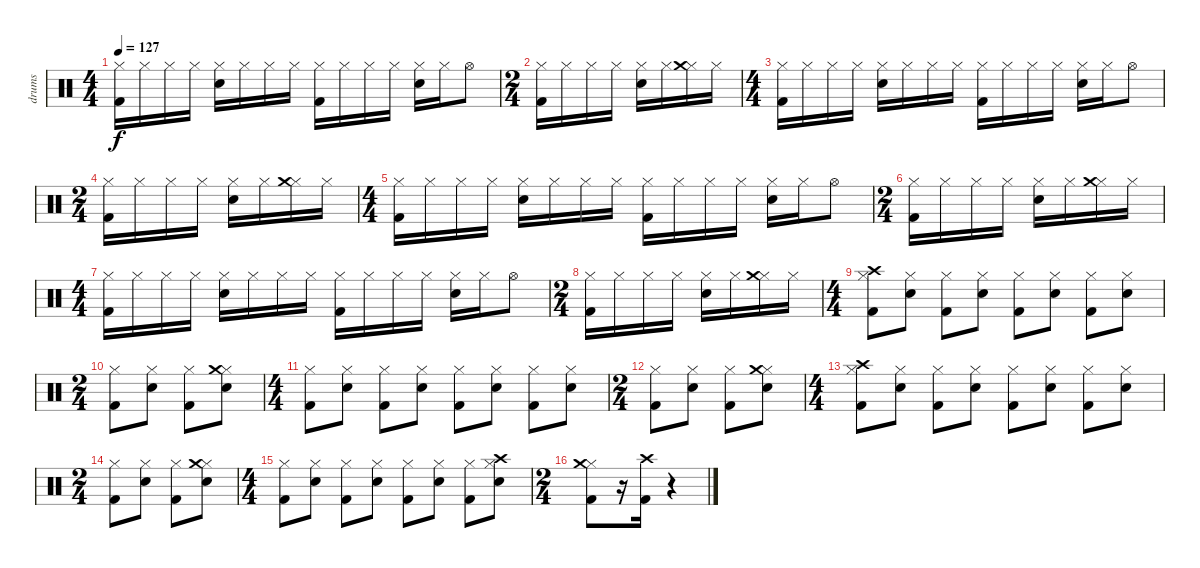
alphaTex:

\track ("drums" "drums") {instrument percussion}
\staff {score}
\articulation defaults
\ts (4 4)
\tempo 127
\clef neutral
\ks c
("Kick (hit) 2" "Hi-Hat (closed)").16{dy f} "Hi-Hat (closed)".16 "Hi-Hat (closed)".16 "Hi-Hat (closed)".16 ("Electric Snare (hit)" "Hi-Hat (closed)").16 "Hi-Hat (closed)".16 "Hi-Hat (closed)".16 "Hi-Hat (closed)".16 ("Kick (hit) 2" "Hi-Hat (closed)").16 "Hi-Hat (closed)".16 "Hi-Hat (closed)".16 "Hi-Hat (closed)".16 ("Electric Snare (hit)" "Hi-Hat (closed)").16 "Hi-Hat (closed)".16 "Hi-Hat (open)".8 |
\ts (2 4)
("Kick (hit) 2" "Hi-Hat (closed)").16 "Hi-Hat (closed)".16 "Hi-Hat (closed)".16 "Hi-Hat (closed)".16 ("Electric Snare (hit)" "Hi-Hat (closed)").16 "Hi-Hat (closed)".16 ("Hi-Hat (closed)" "Crash medium (hit)").16 "Hi-Hat (closed)".16 |
\ts (4 4)
("Kick (hit) 2" "Hi-Hat (closed)").16 "Hi-Hat (closed)".16 "Hi-Hat (closed)".16 "Hi-Hat (closed)".16 ("Electric Snare (hit)" "Hi-Hat (closed)").16 "Hi-Hat (closed)".16 "Hi-Hat (closed)".16 "Hi-Hat (closed)".16 ("Kick (hit) 2" "Hi-Hat (closed)").16 "Hi-Hat (closed)".16 "Hi-Hat (closed)".16 "Hi-Hat (closed)".16 ("Electric Snare (hit)" "Hi-Hat (closed)").16 "Hi-Hat (closed)".16 "Hi-Hat (open)".8 |
\ts (2 4)
("Kick (hit) 2" "Hi-Hat (closed)").16 "Hi-Hat (closed)".16 "Hi-Hat (closed)".16 "Hi-Hat (closed)".16 ("Electric Snare (hit)" "Hi-Hat (closed)").16 "Hi-Hat (closed)".16 ("Hi-Hat (closed)" "Crash medium (hit)").16 "Hi-Hat (closed)".16 |
\ts (4 4)
("Kick (hit) 2" "Hi-Hat (closed)").16 "Hi-Hat (closed)".16 "Hi-Hat (closed)".16 "Hi-Hat (closed)".16 ("Electric Snare (hit)" "Hi-Hat (closed)").16 "Hi-Hat (closed)".16 "Hi-Hat (closed)".16 "Hi-Hat (closed)".16 ("Kick (hit) 2" "Hi-Hat (closed)").16 "Hi-Hat (closed)".16 "Hi-Hat (closed)".16 "Hi-Hat (closed)".16 ("Electric Snare (hit)" "Hi-Hat (closed)").16 "Hi-Hat (closed)".16 "Hi-Hat (open)".8 |
\ts (2 4)
("Kick (hit) 2" "Hi-Hat (closed)").16 "Hi-Hat (closed)".16 "Hi-Hat (closed)".16 "Hi-Hat (closed)".16 ("Electric Snare (hit)" "Hi-Hat (closed)").16 "Hi-Hat (closed)".16 ("Hi-Hat (closed)" "Crash medium (hit)").16 "Hi-Hat (closed)".16 |
\ts (4 4)
("Kick (hit) 2" "Hi-Hat (closed)").16 "Hi-Hat (closed)".16 "Hi-Hat (closed)".16 "Hi-Hat (closed)".16 ("Electric Snare (hit)" "Hi-Hat (closed)").16 "Hi-Hat (closed)".16 "Hi-Hat (closed)".16 "Hi-Hat (closed)".16 ("Kick (hit) 2" "Hi-Hat (closed)").16 "Hi-Hat (closed)".16 "Hi-Hat (closed)".16 "Hi-Hat (closed)".16 ("Electric Snare (hit)" "Hi-Hat (closed)").16 "Hi-Hat (closed)".16 "Hi-Hat (open)".8 |
\ts (2 4)
("Kick (hit) 2" "Hi-Hat (closed)").16 "Hi-Hat (closed)".16 "Hi-Hat (closed)".16 "Hi-Hat (closed)".16 ("Electric Snare (hit)" "Hi-Hat (closed)").16 "Hi-Hat (closed)".16 ("Hi-Hat (closed)" "Crash medium (hit)").16 "Hi-Hat (closed)".16 |
\ts (4 4)
("Kick (hit) 2" "Hi-Hat (closed)" "Crash high (hit)").8 ("Electric Snare (hit)" "Hi-Hat (closed)").8 ("Kick (hit) 2" "Hi-Hat (closed)").8 ("Electric Snare (hit)" "Hi-Hat (closed)").8 ("Kick (hit) 2" "Hi-Hat (closed)").8 ("Electric Snare (hit)" "Hi-Hat (closed)").8 ("Kick (hit) 2" "Hi-Hat (closed)").8 ("Electric Snare (hit)" "Hi-Hat (closed)").8 |
\ts (2 4)
("Kick (hit) 2" "Hi-Hat (closed)").8 ("Electric Snare (hit)" "Hi-Hat (closed)").8 ("Kick (hit) 2" "Hi-Hat (closed)").8 ("Electric Snare (hit)" "Hi-Hat (closed)" "Crash medium (hit)").8 |
\ts (4 4)
("Kick (hit) 2" "Hi-Hat (closed)").8 ("Electric Snare (hit)" "Hi-Hat (closed)").8 ("Kick (hit) 2" "Hi-Hat (closed)").8 ("Electric Snare (hit)" "Hi-Hat (closed)").8 ("Kick (hit) 2" "Hi-Hat (closed)").8 ("Electric Snare (hit)" "Hi-Hat (closed)").8 ("Kick (hit) 2" "Hi-Hat (closed)").8 ("Electric Snare (hit)" "Hi-Hat (closed)").8 |
\ts (2 4)
("Kick (hit) 2" "Hi-Hat (closed)").8 ("Electric Snare (hit)" "Hi-Hat (closed)").8 ("Kick (hit) 2" "Hi-Hat (closed)").8 ("Electric Snare (hit)" "Hi-Hat (closed)" "Crash medium (hit)").8 |
\ts (4 4)
("Kick (hit) 2" "Hi-Hat (closed)" "Crash high (hit)").8 ("Electric Snare (hit)" "Hi-Hat (closed)").8 ("Kick (hit) 2" "Hi-Hat (closed)").8 ("Electric Snare (hit)" "Hi-Hat (closed)").8 ("Kick (hit) 2" "Hi-Hat (closed)").8 ("Electric Snare (hit)" "Hi-Hat (closed)").8 ("Kick (hit) 2" "Hi-Hat (closed)").8 ("Electric Snare (hit)" "Hi-Hat (closed)").8 |
\ts (2 4)
("Kick (hit) 2" "Hi-Hat (closed)").8 ("Electric Snare (hit)" "Hi-Hat (closed)").8 ("Kick (hit) 2" "Hi-Hat (closed)").8 ("Electric Snare (hit)" "Hi-Hat (closed)" "Crash medium (hit)").8 |
\ts (4 4)
("Kick (hit) 2" "Hi-Hat (closed)").8 ("Electric Snare (hit)" "Hi-Hat (closed)").8 ("Kick (hit) 2" "Hi-Hat (closed)").8 ("Electric Snare (hit)" "Hi-Hat (closed)").8 ("Kick (hit) 2" "Hi-Hat (closed)").8 ("Electric Snare (hit)" "Hi-Hat (closed)").8 ("Kick (hit) 2" "Hi-Hat (closed)").8 ("Electric Snare (hit)" "Hi-Hat (closed)" "Crash high (hit)").8 |
\ts (2 4)
("Kick (hit) 2" "Hi-Hat (closed)" "Crash medium (hit)").8 r.16 ("Kick (hit) 2" "Crash high (hit)").16 r.4
